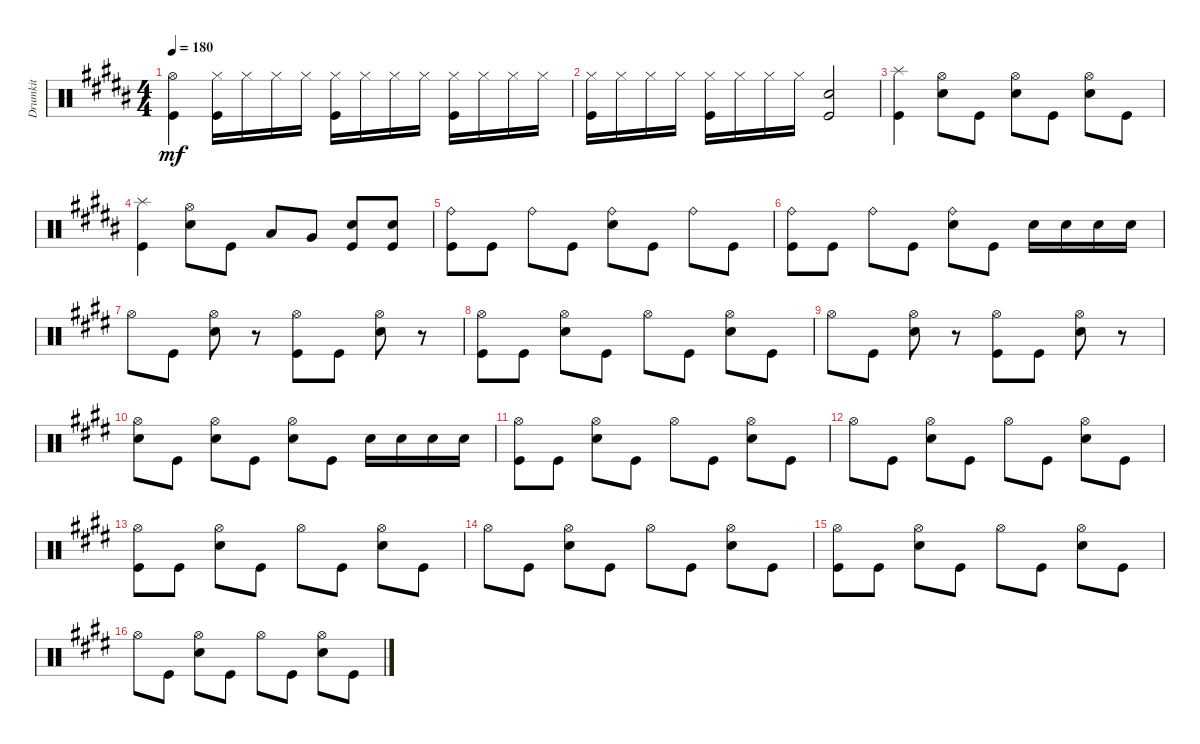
\track ("Drumkit" "Drumkit") {instrument percussion}
\staff {score}
\articulation defaults
\ts (4 4)
\tempo 180
\clef neutral
\ks b
("Hi-Hat (open)" "Kick (hit)").4{dy mf} ("Hi-Hat (closed)" "Kick (hit)").16 "Hi-Hat (closed)".16 "Hi-Hat (closed)".16 "Hi-Hat (closed)".16 ("Hi-Hat (closed)" "Kick (hit)").16 "Hi-Hat (closed)".16 "Hi-Hat (closed)".16 "Hi-Hat (closed)".16 ("Hi-Hat (closed)" "Kick (hit)").16 "Hi-Hat (closed)".16 "Hi-Hat (closed)".16 "Hi-Hat (closed)".16 |
("Hi-Hat (closed)" "Kick (hit)").16 "Hi-Hat (closed)".16 "Hi-Hat (closed)".16 "Hi-Hat (closed)".16 ("Hi-Hat (closed)" "Kick (hit)").16 "Hi-Hat (closed)".16 "Hi-Hat (closed)".16 "Hi-Hat (closed)".16 ("Kick (hit)" "Snare (hit) 2").2 |
("Splash (hit)" "Kick (hit)").4 ("Snare (hit) 2" "Hi-Hat (open)").8 "Kick (hit)".8 ("Snare (hit) 2" "Hi-Hat (open)").8 "Kick (hit)".8 ("Snare (hit) 2" "Hi-Hat (open)").8 "Kick (hit)".8 |
("Splash (hit)" "Kick (hit)").4 ("Snare (hit) 2" "Hi-Hat (open)").8 "Kick (hit)".8 "Low Tom (hit)".8 "Very Low Tom (hit)".8 ("Snare (hit) 2" "Kick (hit)").8 ("Snare (hit) 2" "Kick (hit)").8 |
("Kick (hit)" "Ride (bell)").8 "Kick (hit)".8 "Ride (bell)".8 "Kick (hit)".8 ("Snare (hit) 2" "Ride (bell)").8 "Kick (hit)".8 "Ride (bell)".8 "Kick (hit)".8 |
("Kick (hit)" "Ride (bell)").8 "Kick (hit)".8 "Ride (bell)".8 "Kick (hit)".8 ("Snare (hit) 2" "Ride (bell)").8 "Kick (hit)".8 "Snare (hit) 2".16 "Snare (hit) 2".16 "Snare (hit) 2".16 "Snare (hit) 2".16 |
\ks e "Hi-Hat (open)".8 "Kick (hit)".8
("Snare (hit) 2" "Hi-Hat (open)").8 r.8 ("Kick (hit)" "Hi-Hat (open)").8 "Kick (hit)".8 ("Snare (hit) 2" "Hi-Hat (open)").8 r.8 |
("Kick (hit)" "Hi-Hat (open)").8 "Kick (hit)".8 ("Snare (hit) 2" "Hi-Hat (open)").8 "Kick (hit)".8 "Hi-Hat (open)".8 "Kick (hit)".8 ("Snare (hit) 2" "Hi-Hat (open)").8 "Kick (hit)".8 |
"Hi-Hat (open)".8 "Kick (hit)".8 ("Snare (hit) 2" "Hi-Hat (open)").8 r.8 ("Kick (hit)" "Hi-Hat (open)").8 "Kick (hit)".8 ("Snare (hit) 2" "Hi-Hat (open)").8 r.8 |
("Snare (hit) 2" "Hi-Hat (open)").8 "Kick (hit)".8 ("Snare (hit) 2" "Hi-Hat (open)").8 "Kick (hit)".8 ("Snare (hit) 2" "Hi-Hat (open)").8 "Kick (hit)".8 "Snare (hit) 2".16 "Snare (hit) 2".16 "Snare (hit) 2".16 "Snare (hit) 2".16 |
("Kick (hit)" "Hi-Hat (open)").8 "Kick (hit)".8 ("Snare (hit) 2" "Hi-Hat (open)").8 "Kick (hit)".8 "Hi-Hat (open)".8 "Kick (hit)".8 ("Snare (hit) 2" "Hi-Hat (open)").8 "Kick (hit)".8 |
"Hi-Hat (open)".8 "Kick (hit)".8 ("Snare (hit) 2" "Hi-Hat (open)").8 "Kick (hit)".8 "Hi-Hat (open)".8 "Kick (hit)".8 ("Snare (hit) 2" "Hi-Hat (open)").8 "Kick (hit)".8 |
("Kick (hit)" "Hi-Hat (open)").8 "Kick (hit)".8 ("Snare (hit) 2" "Hi-Hat (open)").8 "Kick (hit)".8 "Hi-Hat (open)".8 "Kick (hit)".8 ("Snare (hit) 2" "Hi-Hat (open)").8 "Kick (hit)".8 |
"Hi-Hat (open)".8 "Kick (hit)".8 ("Snare (hit) 2" "Hi-Hat (open)").8 "Kick (hit)".8 "Hi-Hat (open)".8 "Kick (hit)".8 ("Snare (hit) 2" "Hi-Hat (open)").8 "Kick (hit)".8 |
("Kick (hit)" "Hi-Hat (open)").8 "Kick (hit)".8 ("Snare (hit) 2" "Hi-Hat (open)").8 "Kick (hit)".8 "Hi-Hat (open)".8 "Kick (hit)".8 ("Snare (hit) 2" "Hi-Hat (open)").8 "Kick (hit)".8 |
"Hi-Hat (open)".8 "Kick (hit)".8 ("Snare (hit) 2" "Hi-Hat (open)").8 "Kick (hit)".8 "Hi-Hat (open)".8 "Kick (hit)".8 ("Snare (hit) 2" "Hi-Hat (open)").8 "Kick (hit)".8
